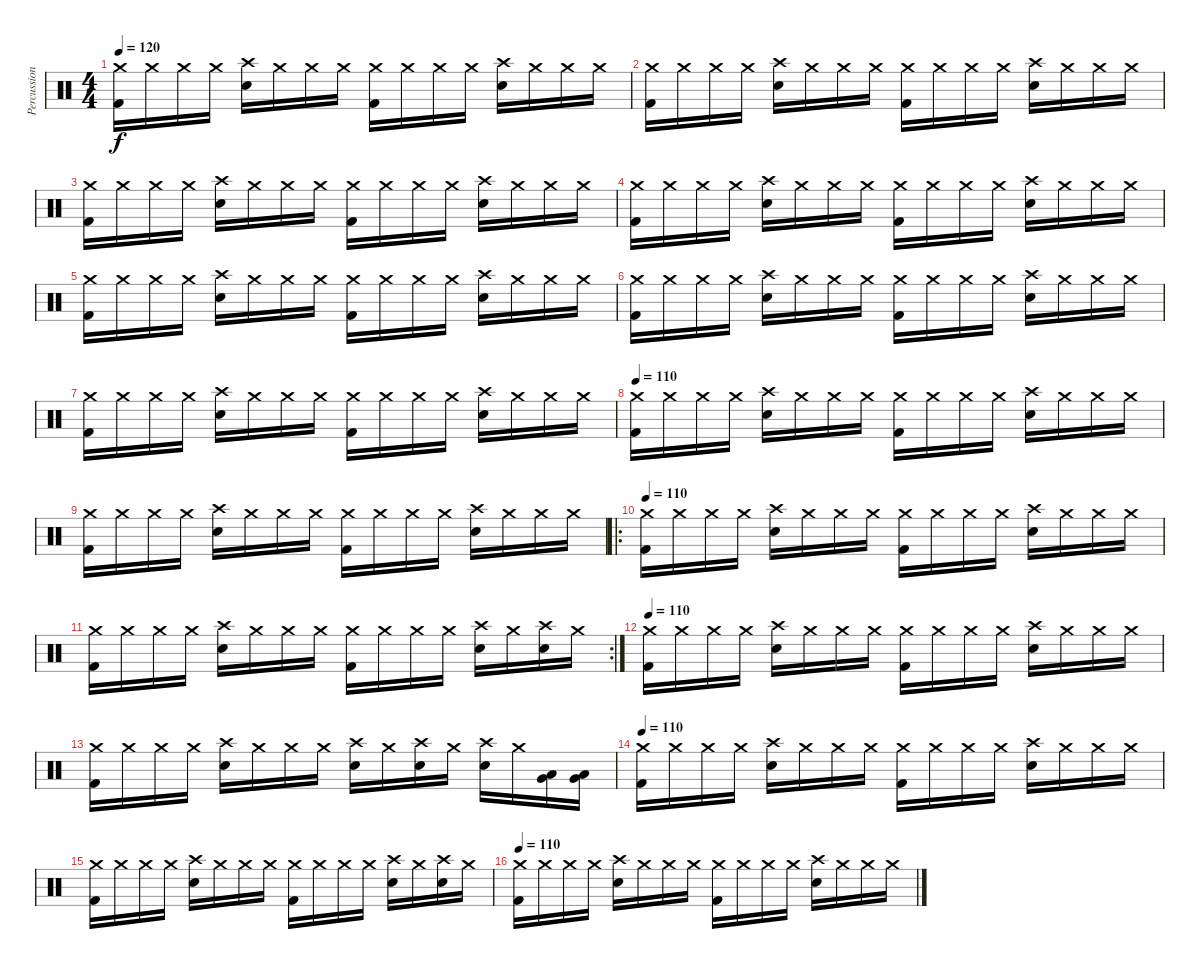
\track ("Percussion" "Percussion") {instrument percussion}
\staff {score}
\articulation defaults
\ts (4 4)
\tempo 120
\clef neutral
\ks c
("Crash medium (hit)" "Kick (hit) 2").16{dy f} "Crash medium (hit)".16 "Crash medium (hit)".16 "Crash medium (hit)".16 ("Crash high (hit)" "Electric Snare (hit)").16 "Crash medium (hit)".16 "Crash medium (hit)".16 "Crash medium (hit)".16 ("Crash medium (hit)" "Kick (hit) 2").16 "Crash medium (hit)".16 "Crash medium (hit)".16 "Crash medium (hit)".16 ("Crash high (hit)" "Electric Snare (hit)").16 "Crash medium (hit)".16 "Crash medium (hit)".16 "Crash medium (hit)".16 |
("Crash medium (hit)" "Kick (hit) 2").16 "Crash medium (hit)".16 "Crash medium (hit)".16 "Crash medium (hit)".16 ("Crash high (hit)" "Electric Snare (hit)").16 "Crash medium (hit)".16 "Crash medium (hit)".16 "Crash medium (hit)".16 ("Crash medium (hit)" "Kick (hit) 2").16 "Crash medium (hit)".16 "Crash medium (hit)".16 "Crash medium (hit)".16 ("Crash high (hit)" "Electric Snare (hit)").16 "Crash medium (hit)".16 "Crash medium (hit)".16 "Crash medium (hit)".16 |
("Crash medium (hit)" "Kick (hit) 2").16 "Crash medium (hit)".16 "Crash medium (hit)".16 "Crash medium (hit)".16 ("Crash high (hit)" "Electric Snare (hit)").16 "Crash medium (hit)".16 "Crash medium (hit)".16 "Crash medium (hit)".16 ("Crash medium (hit)" "Kick (hit) 2").16 "Crash medium (hit)".16 "Crash medium (hit)".16 "Crash medium (hit)".16 ("Crash high (hit)" "Electric Snare (hit)").16 "Crash medium (hit)".16 "Crash medium (hit)".16 "Crash medium (hit)".16 |
("Crash medium (hit)" "Kick (hit) 2").16 "Crash medium (hit)".16 "Crash medium (hit)".16 "Crash medium (hit)".16 ("Crash high (hit)" "Electric Snare (hit)").16 "Crash medium (hit)".16 "Crash medium (hit)".16 "Crash medium (hit)".16 ("Crash medium (hit)" "Kick (hit) 2").16 "Crash medium (hit)".16 "Crash medium (hit)".16 "Crash medium (hit)".16 ("Crash high (hit)" "Electric Snare (hit)").16 "Crash medium (hit)".16 "Crash medium (hit)".16 "Crash medium (hit)".16 |
("Crash medium (hit)" "Kick (hit) 2").16 "Crash medium (hit)".16 "Crash medium (hit)".16 "Crash medium (hit)".16 ("Crash high (hit)" "Electric Snare (hit)").16 "Crash medium (hit)".16 "Crash medium (hit)".16 "Crash medium (hit)".16 ("Crash medium (hit)" "Kick (hit) 2").16 "Crash medium (hit)".16 "Crash medium (hit)".16 "Crash medium (hit)".16 ("Crash high (hit)" "Electric Snare (hit)").16 "Crash medium (hit)".16 "Crash medium (hit)".16 "Crash medium (hit)".16 |
("Crash medium (hit)" "Kick (hit) 2").16 "Crash medium (hit)".16 "Crash medium (hit)".16 "Crash medium (hit)".16 ("Crash high (hit)" "Electric Snare (hit)").16 "Crash medium (hit)".16 "Crash medium (hit)".16 "Crash medium (hit)".16 ("Crash medium (hit)" "Kick (hit) 2").16 "Crash medium (hit)".16 "Crash medium (hit)".16 "Crash medium (hit)".16 ("Crash high (hit)" "Electric Snare (hit)").16 "Crash medium (hit)".16 "Crash medium (hit)".16 "Crash medium (hit)".16 |
("Crash medium (hit)" "Kick (hit) 2").16 "Crash medium (hit)".16 "Crash medium (hit)".16 "Crash medium (hit)".16 ("Crash high (hit)" "Electric Snare (hit)").16 "Crash medium (hit)".16 "Crash medium (hit)".16 "Crash medium (hit)".16 ("Crash medium (hit)" "Kick (hit) 2").16 "Crash medium (hit)".16 "Crash medium (hit)".16 "Crash medium (hit)".16 ("Crash high (hit)" "Electric Snare (hit)").16 "Crash medium (hit)".16 "Crash medium (hit)".16 "Crash medium (hit)".16 |
\tempo 110
("Crash medium (hit)" "Kick (hit) 2").16 "Crash medium (hit)".16 "Crash medium (hit)".16 "Crash medium (hit)".16 ("Crash high (hit)" "Electric Snare (hit)").16 "Crash medium (hit)".16 "Crash medium (hit)".16 "Crash medium (hit)".16 ("Crash medium (hit)" "Kick (hit) 2").16 "Crash medium (hit)".16 "Crash medium (hit)".16 "Crash medium (hit)".16 ("Crash high (hit)" "Electric Snare (hit)").16 "Crash medium (hit)".16 "Crash medium (hit)".16 "Crash medium (hit)".16 |
("Crash medium (hit)" "Kick (hit) 2").16 "Crash medium (hit)".16 "Crash medium (hit)".16 "Crash medium (hit)".16 ("Crash high (hit)" "Electric Snare (hit)").16 "Crash medium (hit)".16 "Crash medium (hit)".16 "Crash medium (hit)".16 ("Crash medium (hit)" "Kick (hit) 2").16 "Crash medium (hit)".16 "Crash medium (hit)".16 "Crash medium (hit)".16 ("Crash high (hit)" "Electric Snare (hit)").16 "Crash medium (hit)".16 "Crash medium (hit)".16 "Crash medium (hit)".16 |
\ro
\tempo 110
("Crash medium (hit)" "Kick (hit) 2").16 "Crash medium (hit)".16 "Crash medium (hit)".16 "Crash medium (hit)".16 ("Crash high (hit)" "Electric Snare (hit)").16 "Crash medium (hit)".16 "Crash medium (hit)".16 "Crash medium (hit)".16 ("Crash medium (hit)" "Kick (hit) 2").16 "Crash medium (hit)".16 "Crash medium (hit)".16 "Crash medium (hit)".16 ("Crash high (hit)" "Electric Snare (hit)").16 "Crash medium (hit)".16 "Crash medium (hit)".16 "Crash medium (hit)".16 |
\rc 2
("Crash medium (hit)" "Kick (hit) 2").16 "Crash medium (hit)".16 "Crash medium (hit)".16 "Crash medium (hit)".16 ("Crash high (hit)" "Electric Snare (hit)").16 "Crash medium (hit)".16 "Crash medium (hit)".16 "Crash medium (hit)".16 ("Crash medium (hit)" "Kick (hit) 2").16 "Crash medium (hit)".16 "Crash medium (hit)".16 "Crash medium (hit)".16 ("Crash high (hit)" "Electric Snare (hit)").16 "Crash medium (hit)".16 ("Crash high (hit)" "Electric Snare (hit)").16 "Crash medium (hit)".16 |
\tempo 110
("Crash medium (hit)" "Kick (hit) 2").16 "Crash medium (hit)".16 "Crash medium (hit)".16 "Crash medium (hit)".16 ("Crash high (hit)" "Electric Snare (hit)").16 "Crash medium (hit)".16 "Crash medium (hit)".16 "Crash medium (hit)".16 ("Crash medium (hit)" "Kick (hit) 2").16 "Crash medium (hit)".16 "Crash medium (hit)".16 "Crash medium (hit)".16 ("Crash high (hit)" "Electric Snare (hit)").16 "Crash medium (hit)".16 "Crash medium (hit)".16 "Crash medium (hit)".16 |
("Crash medium (hit)" "Kick (hit) 2").16 "Crash medium (hit)".16 "Crash medium (hit)".16 "Crash medium (hit)".16 ("Crash high (hit)" "Electric Snare (hit)").16 "Crash medium (hit)".16 "Crash medium (hit)".16 "Crash medium (hit)".16 ("Crash high (hit)" "Electric Snare (hit)").16 "Crash medium (hit)".16 ("Crash high (hit)" "Electric Snare (hit)").16 "Crash medium (hit)".16 ("Crash high (hit)" "Electric Snare (hit)").16 "Crash medium (hit)".16 ("Very Low Tom (hit)" "Low Tom (hit)").16 ("Low Floor Tom (hit)" "Very Low Tom (hit)").16 |
\tempo 110
("Crash medium (hit)" "Kick (hit) 2").16 "Crash medium (hit)".16 "Crash medium (hit)".16 "Crash medium (hit)".16 ("Crash high (hit)" "Electric Snare (hit)").16 "Crash medium (hit)".16 "Crash medium (hit)".16 "Crash medium (hit)".16 ("Crash medium (hit)" "Kick (hit) 2").16 "Crash medium (hit)".16 "Crash medium (hit)".16 "Crash medium (hit)".16 ("Crash high (hit)" "Electric Snare (hit)").16 "Crash medium (hit)".16 "Crash medium (hit)".16 "Crash medium (hit)".16 |
("Crash medium (hit)" "Kick (hit) 2").16 "Crash medium (hit)".16 "Crash medium (hit)".16 "Crash medium (hit)".16 ("Crash high (hit)" "Electric Snare (hit)").16 "Crash medium (hit)".16 "Crash medium (hit)".16 "Crash medium (hit)".16 ("Crash medium (hit)" "Kick (hit) 2").16 "Crash medium (hit)".16 "Crash medium (hit)".16 "Crash medium (hit)".16 ("Crash high (hit)" "Electric Snare (hit)").16 "Crash medium (hit)".16 ("Crash high (hit)" "Electric Snare (hit)").16 "Crash medium (hit)".16 |
\tempo 110
("Crash medium (hit)" "Kick (hit) 2").16 "Crash medium (hit)".16 "Crash medium (hit)".16 "Crash medium (hit)".16 ("Crash high (hit)" "Electric Snare (hit)").16 "Crash medium (hit)".16 "Crash medium (hit)".16 "Crash medium (hit)".16 ("Crash medium (hit)" "Kick (hit) 2").16 "Crash medium (hit)".16 "Crash medium (hit)".16 "Crash medium (hit)".16 ("Crash high (hit)" "Electric Snare (hit)").16 "Crash medium (hit)".16 "Crash medium (hit)".16 "Crash medium (hit)".16
